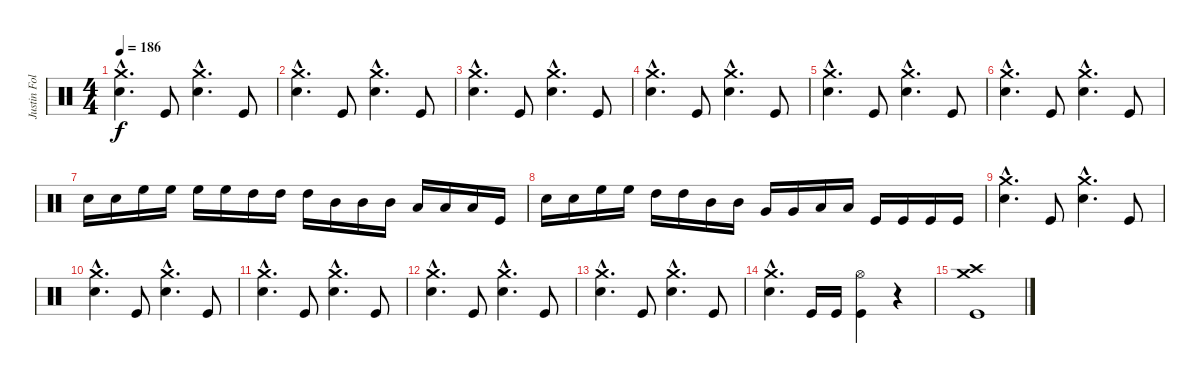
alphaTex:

\track ("Justin Foley" "Justin Fol") {instrument percussion}
\staff {score}
\articulation defaults
\ts (4 4)
\tempo 186
\clef neutral
\ks c
("Crash medium (hit)"{hac} "Electric Snare (hit)"{hac}).4{d dy f} "Kick (hit)".8 ("Crash medium (hit)"{hac} "Electric Snare (hit)"{hac}).4{d} "Kick (hit)".8 |
("Crash medium (hit)"{hac} "Electric Snare (hit)"{hac}).4{d} "Kick (hit)".8 ("Crash medium (hit)"{hac} "Electric Snare (hit)"{hac}).4{d} "Kick (hit)".8 |
("Crash medium (hit)"{hac} "Electric Snare (hit)"{hac}).4{d} "Kick (hit)".8 ("Crash medium (hit)"{hac} "Electric Snare (hit)"{hac}).4{d} "Kick (hit)".8 |
("Crash medium (hit)"{hac} "Electric Snare (hit)"{hac}).4{d} "Kick (hit)".8 ("Crash medium (hit)"{hac} "Electric Snare (hit)"{hac}).4{d} "Kick (hit)".8 |
("Crash medium (hit)"{hac} "Electric Snare (hit)"{hac}).4{d} "Kick (hit)".8 ("Crash medium (hit)"{hac} "Electric Snare (hit)"{hac}).4{d} "Kick (hit)".8 |
("Crash medium (hit)"{hac} "Electric Snare (hit)"{hac}).4{d} "Kick (hit)".8 ("Crash medium (hit)"{hac} "Electric Snare (hit)"{hac}).4{d} "Kick (hit)".8 |
"Electric Snare (hit)".16 "Electric Snare (hit)".16 "High Floor Tom (hit)".16 "High Floor Tom (hit)".16 "High Floor Tom (hit)".16 "High Floor Tom (hit)".16 "High Tom (hit)".16 "High Tom (hit)".16 "High Tom (hit)".16 "Mid Tom (hit)".16 "Mid Tom (hit)".16 "Mid Tom (hit)".16 "Low Tom (hit)".16 "Low Tom (hit)".16 "Low Tom (hit)".16 "Kick (hit)".16 |
"Electric Snare (hit)".16 "Electric Snare (hit)".16 "High Floor Tom (hit)".16 "High Floor Tom (hit)".16 "High Tom (hit)".16 "High Tom (hit)".16 "Mid Tom (hit)".16 "Mid Tom (hit)".16 "Very Low Tom (hit)".16 "Very Low Tom (hit)".16 "Low Floor Tom (hit)".16 "Low Floor Tom (hit)".16 "Kick (hit)".16 "Kick (hit)".16 "Kick (hit)".16 "Kick (hit)".16 |
("Crash medium (hit)"{hac} "Electric Snare (hit)"{hac}).4{d} "Kick (hit)".8 ("Crash medium (hit)"{hac} "Electric Snare (hit)"{hac}).4{d} "Kick (hit)".8 |
("Crash medium (hit)"{hac} "Electric Snare (hit)"{hac}).4{d} "Kick (hit)".8 ("Crash medium (hit)"{hac} "Electric Snare (hit)"{hac}).4{d} "Kick (hit)".8 |
("Crash medium (hit)"{hac} "Electric Snare (hit)"{hac}).4{d} "Kick (hit)".8 ("Crash medium (hit)"{hac} "Electric Snare (hit)"{hac}).4{d} "Kick (hit)".8 |
("Crash medium (hit)"{hac} "Electric Snare (hit)"{hac}).4{d} "Kick (hit)".8 ("Crash medium (hit)"{hac} "Electric Snare (hit)"{hac}).4{d} "Kick (hit)".8 |
("Crash medium (hit)"{hac} "Electric Snare (hit)"{hac}).4{d} "Kick (hit)".8 ("Crash medium (hit)"{hac} "Electric Snare (hit)"{hac}).4{d} "Kick (hit)".8 |
("Crash medium (hit)"{hac} "Electric Snare (hit)"{hac}).4{d} "Kick (hit)".16 "Kick (hit)".16 ("Hi-Hat (open)" "Kick (hit)").4 r.4 |
("Crash medium (hit)" "Crash high (hit)" "Kick (hit)").1
